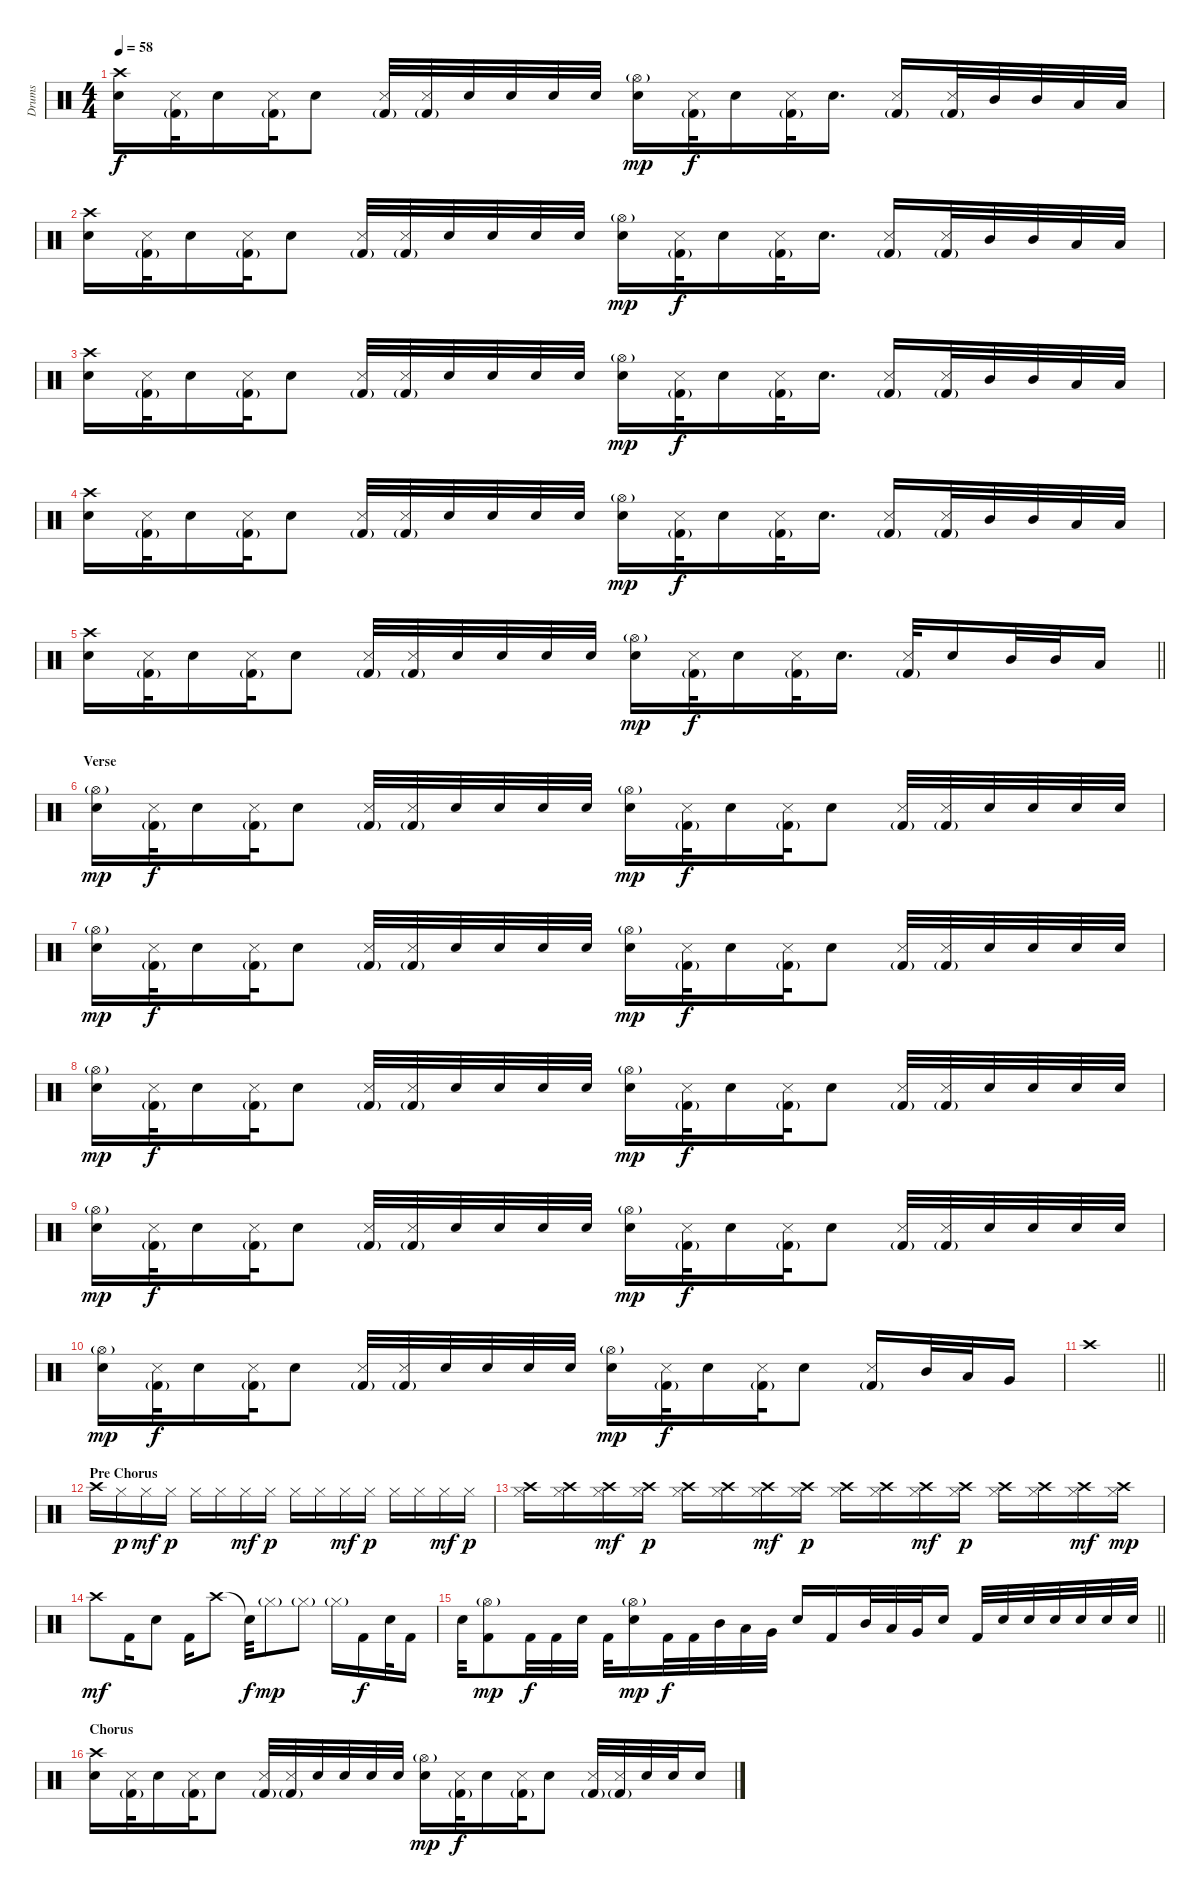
\track ("Drums" "Drums") {instrument percussion}
\staff {score}
\articulation defaults
\ts (4 4)
\tempo 58
\clef neutral
\ks c
("Crash high (hit)" "Electric Snare (hit)").16{dy f} ("Metronome (hit)" "Kick (hit) 2"{g}).32 "Electric Snare (hit)".16 ("Metronome (hit)" "Kick (hit) 2"{g}).32 "Electric Snare (hit)".8 ("Metronome (hit)" "Kick (hit) 2"{g}).32 ("Metronome (hit)" "Kick (hit) 2"{g}).32 "Electric Snare (hit)".32 "Electric Snare (hit)".32 "Electric Snare (hit)".32 "Electric Snare (hit)".32 ("Hi-Hat (open)"{g} "Electric Snare (hit)").16{dy mp} ("Metronome (hit)" "Kick (hit) 2"{g}).32{dy f} "Electric Snare (hit)".16 ("Metronome (hit)" "Kick (hit) 2"{g}).32 "Electric Snare (hit)".16{d} ("Metronome (hit)" "Kick (hit) 2"{g}).16 ("Metronome (hit)" "Kick (hit) 2"{g}).32 "Mid Tom (hit)".32 "Mid Tom (hit)".32 "Low Tom (hit)".32 "Low Tom (hit)".32 |
("Crash high (hit)" "Electric Snare (hit)").16 ("Metronome (hit)" "Kick (hit) 2"{g}).32 "Electric Snare (hit)".16 ("Metronome (hit)" "Kick (hit) 2"{g}).32 "Electric Snare (hit)".8 ("Metronome (hit)" "Kick (hit) 2"{g}).32 ("Metronome (hit)" "Kick (hit) 2"{g}).32 "Electric Snare (hit)".32 "Electric Snare (hit)".32 "Electric Snare (hit)".32 "Electric Snare (hit)".32 ("Hi-Hat (open)"{g} "Electric Snare (hit)").16{dy mp} ("Metronome (hit)" "Kick (hit) 2"{g}).32{dy f} "Electric Snare (hit)".16 ("Metronome (hit)" "Kick (hit) 2"{g}).32 "Electric Snare (hit)".16{d} ("Metronome (hit)" "Kick (hit) 2"{g}).16 ("Metronome (hit)" "Kick (hit) 2"{g}).32 "Mid Tom (hit)".32 "Mid Tom (hit)".32 "Low Tom (hit)".32 "Low Tom (hit)".32 |
("Crash high (hit)" "Electric Snare (hit)").16 ("Metronome (hit)" "Kick (hit) 2"{g}).32 "Electric Snare (hit)".16 ("Metronome (hit)" "Kick (hit) 2"{g}).32 "Electric Snare (hit)".8 ("Metronome (hit)" "Kick (hit) 2"{g}).32 ("Metronome (hit)" "Kick (hit) 2"{g}).32 "Electric Snare (hit)".32 "Electric Snare (hit)".32 "Electric Snare (hit)".32 "Electric Snare (hit)".32 ("Hi-Hat (open)"{g} "Electric Snare (hit)").16{dy mp} ("Metronome (hit)" "Kick (hit) 2"{g}).32{dy f} "Electric Snare (hit)".16 ("Metronome (hit)" "Kick (hit) 2"{g}).32 "Electric Snare (hit)".16{d} ("Metronome (hit)" "Kick (hit) 2"{g}).16 ("Metronome (hit)" "Kick (hit) 2"{g}).32 "Mid Tom (hit)".32 "Mid Tom (hit)".32 "Low Tom (hit)".32 "Low Tom (hit)".32 |
("Crash high (hit)" "Electric Snare (hit)").16 ("Metronome (hit)" "Kick (hit) 2"{g}).32 "Electric Snare (hit)".16 ("Metronome (hit)" "Kick (hit) 2"{g}).32 "Electric Snare (hit)".8 ("Metronome (hit)" "Kick (hit) 2"{g}).32 ("Metronome (hit)" "Kick (hit) 2"{g}).32 "Electric Snare (hit)".32 "Electric Snare (hit)".32 "Electric Snare (hit)".32 "Electric Snare (hit)".32 ("Hi-Hat (open)"{g} "Electric Snare (hit)").16{dy mp} ("Metronome (hit)" "Kick (hit) 2"{g}).32{dy f} "Electric Snare (hit)".16 ("Metronome (hit)" "Kick (hit) 2"{g}).32 "Electric Snare (hit)".16{d} ("Metronome (hit)" "Kick (hit) 2"{g}).16 ("Metronome (hit)" "Kick (hit) 2"{g}).32 "Mid Tom (hit)".32 "Mid Tom (hit)".32 "Low Tom (hit)".32 "Low Tom (hit)".32 |
\barLineRight lightlight
("Crash high (hit)" "Electric Snare (hit)").16 ("Metronome (hit)" "Kick (hit) 2"{g}).32 "Electric Snare (hit)".16 ("Metronome (hit)" "Kick (hit) 2"{g}).32 "Electric Snare (hit)".8 ("Metronome (hit)" "Kick (hit) 2"{g}).32 ("Metronome (hit)" "Kick (hit) 2"{g}).32 "Electric Snare (hit)".32 "Electric Snare (hit)".32 "Electric Snare (hit)".32 "Electric Snare (hit)".32 ("Hi-Hat (open)"{g} "Electric Snare (hit)").16{dy mp} ("Metronome (hit)" "Kick (hit) 2"{g}).32{dy f} "Electric Snare (hit)".16 ("Metronome (hit)" "Kick (hit) 2"{g}).32 "Electric Snare (hit)".16{d} ("Metronome (hit)" "Kick (hit) 2"{g}).32 "Electric Snare (hit)".16 "Mid Tom (hit)".32 "Mid Tom (hit)".32 "Low Tom (hit)".16 |
\section ("" "Verse")
("Hi-Hat (open)"{g} "Electric Snare (hit)").16{dy mp} ("Metronome (hit)" "Kick (hit) 2"{g}).32{dy f} "Electric Snare (hit)".16 ("Metronome (hit)" "Kick (hit) 2"{g}).32 "Electric Snare (hit)".8 ("Metronome (hit)" "Kick (hit) 2"{g}).32 ("Metronome (hit)" "Kick (hit) 2"{g}).32 "Electric Snare (hit)".32 "Electric Snare (hit)".32 "Electric Snare (hit)".32 "Electric Snare (hit)".32 ("Hi-Hat (open)"{g} "Electric Snare (hit)").16{dy mp} ("Metronome (hit)" "Kick (hit) 2"{g}).32{dy f} "Electric Snare (hit)".16 ("Metronome (hit)" "Kick (hit) 2"{g}).32 "Electric Snare (hit)".8 ("Metronome (hit)" "Kick (hit) 2"{g}).32 ("Metronome (hit)" "Kick (hit) 2"{g}).32 "Electric Snare (hit)".32 "Electric Snare (hit)".32 "Electric Snare (hit)".32 "Electric Snare (hit)".32 |
("Hi-Hat (open)"{g} "Electric Snare (hit)").16{dy mp} ("Metronome (hit)" "Kick (hit) 2"{g}).32{dy f} "Electric Snare (hit)".16 ("Metronome (hit)" "Kick (hit) 2"{g}).32 "Electric Snare (hit)".8 ("Metronome (hit)" "Kick (hit) 2"{g}).32 ("Metronome (hit)" "Kick (hit) 2"{g}).32 "Electric Snare (hit)".32 "Electric Snare (hit)".32 "Electric Snare (hit)".32 "Electric Snare (hit)".32 ("Hi-Hat (open)"{g} "Electric Snare (hit)").16{dy mp} ("Metronome (hit)" "Kick (hit) 2"{g}).32{dy f} "Electric Snare (hit)".16 ("Metronome (hit)" "Kick (hit) 2"{g}).32 "Electric Snare (hit)".8 ("Metronome (hit)" "Kick (hit) 2"{g}).32 ("Metronome (hit)" "Kick (hit) 2"{g}).32 "Electric Snare (hit)".32 "Electric Snare (hit)".32 "Electric Snare (hit)".32 "Electric Snare (hit)".32 |
("Hi-Hat (open)"{g} "Electric Snare (hit)").16{dy mp} ("Metronome (hit)" "Kick (hit) 2"{g}).32{dy f} "Electric Snare (hit)".16 ("Metronome (hit)" "Kick (hit) 2"{g}).32 "Electric Snare (hit)".8 ("Metronome (hit)" "Kick (hit) 2"{g}).32 ("Metronome (hit)" "Kick (hit) 2"{g}).32 "Electric Snare (hit)".32 "Electric Snare (hit)".32 "Electric Snare (hit)".32 "Electric Snare (hit)".32 ("Hi-Hat (open)"{g} "Electric Snare (hit)").16{dy mp} ("Metronome (hit)" "Kick (hit) 2"{g}).32{dy f} "Electric Snare (hit)".16 ("Metronome (hit)" "Kick (hit) 2"{g}).32 "Electric Snare (hit)".8 ("Metronome (hit)" "Kick (hit) 2"{g}).32 ("Metronome (hit)" "Kick (hit) 2"{g}).32 "Electric Snare (hit)".32 "Electric Snare (hit)".32 "Electric Snare (hit)".32 "Electric Snare (hit)".32 |
("Hi-Hat (open)"{g} "Electric Snare (hit)").16{dy mp} ("Metronome (hit)" "Kick (hit) 2"{g}).32{dy f} "Electric Snare (hit)".16 ("Metronome (hit)" "Kick (hit) 2"{g}).32 "Electric Snare (hit)".8 ("Metronome (hit)" "Kick (hit) 2"{g}).32 ("Metronome (hit)" "Kick (hit) 2"{g}).32 "Electric Snare (hit)".32 "Electric Snare (hit)".32 "Electric Snare (hit)".32 "Electric Snare (hit)".32 ("Hi-Hat (open)"{g} "Electric Snare (hit)").16{dy mp} ("Metronome (hit)" "Kick (hit) 2"{g}).32{dy f} "Electric Snare (hit)".16 ("Metronome (hit)" "Kick (hit) 2"{g}).32 "Electric Snare (hit)".8 ("Metronome (hit)" "Kick (hit) 2"{g}).32 ("Metronome (hit)" "Kick (hit) 2"{g}).32 "Electric Snare (hit)".32 "Electric Snare (hit)".32 "Electric Snare (hit)".32 "Electric Snare (hit)".32 |
("Hi-Hat (open)"{g} "Electric Snare (hit)").16{dy mp} ("Metronome (hit)" "Kick (hit) 2"{g}).32{dy f} "Electric Snare (hit)".16 ("Metronome (hit)" "Kick (hit) 2"{g}).32 "Electric Snare (hit)".8 ("Metronome (hit)" "Kick (hit) 2"{g}).32 ("Metronome (hit)" "Kick (hit) 2"{g}).32 "Electric Snare (hit)".32 "Electric Snare (hit)".32 "Electric Snare (hit)".32 "Electric Snare (hit)".32 ("Hi-Hat (open)"{g} "Electric Snare (hit)").16{dy mp} ("Metronome (hit)" "Kick (hit) 2"{g}).32{dy f} "Electric Snare (hit)".16 ("Metronome (hit)" "Kick (hit) 2"{g}).32 "Electric Snare (hit)".8 ("Metronome (hit)" "Kick (hit) 2"{g}).16 "Mid Tom (hit)".32 "Low Tom (hit)".32 "Very Low Tom (hit)".16 |
\barLineRight lightlight "Crash high (hit)".1
|
\section ("" "Pre Chorus")
"Crash high (hit)".16 "Hi-Hat (closed)".16{dy p} "Hi-Hat (closed)".16{dy mf} "Hi-Hat (closed)".16{dy p} "Hi-Hat (closed)".16 "Hi-Hat (closed)".16 "Hi-Hat (closed)".16{dy mf} "Hi-Hat (closed)".16{dy p} "Hi-Hat (closed)".16 "Hi-Hat (closed)".16 "Hi-Hat (closed)".16{dy mf} "Hi-Hat (closed)".16{dy p} "Hi-Hat (closed)".16 "Hi-Hat (closed)".16 "Hi-Hat (closed)".16{dy mf} "Hi-Hat (closed)".16{dy p} |
("Crash high (hit)" "Hi-Hat (closed)").16 ("Crash high (hit)" "Hi-Hat (closed)").16 ("Crash high (hit)" "Hi-Hat (closed)").16{dy mf} ("Crash high (hit)" "Hi-Hat (closed)").16{dy p} ("Crash high (hit)" "Hi-Hat (closed)").16 ("Crash high (hit)" "Hi-Hat (closed)").16 ("Crash high (hit)" "Hi-Hat (closed)").16{dy mf} ("Crash high (hit)" "Hi-Hat (closed)").16{dy p} ("Crash high (hit)" "Hi-Hat (closed)").16 ("Crash high (hit)" "Hi-Hat (closed)").16 ("Crash high (hit)" "Hi-Hat (closed)").16{dy mf} ("Crash high (hit)" "Hi-Hat (closed)").16{dy p} ("Crash high (hit)" "Hi-Hat (closed)").16 ("Crash high (hit)" "Hi-Hat (closed)").16 ("Crash high (hit)" "Hi-Hat (closed)").16{dy mf} ("Crash high (hit)" "Hi-Hat (closed)").16{dy mp} |
"Crash high (hit)".8{dy mf} "Kick (hit) 2".16 "Electric Snare (hit)".8 "Kick (hit) 2".16 "Crash high (hit)".8 "Snare (hit)"{t}.32{dy f} "Hi-Hat (closed)"{g}.8{dy mp} "Hi-Hat (closed)"{g}.8 "Hi-Hat (closed)"{g}.16 "Kick (hit) 2".16{dy f} "Electric Snare (hit)".32 "Kick (hit) 2".16 |
\barLineRight lightlight "Electric Snare (hit)".32
("Hi-Hat (open)"{g} "Kick (hit) 2").8{dy mp} "Kick (hit) 2".32{dy f} "Kick (hit) 2".32 "Electric Snare (hit)".32 "Kick (hit) 2".32 ("Hi-Hat (open)"{g} "Electric Snare (hit)").16{dy mp} "Kick (hit) 2".32{dy f} "Kick (hit) 2".32 "Mid Tom (hit)".32 "Low Tom (hit)".32 "Very Low Tom (hit)".32 "Electric Snare (hit)".16 "Kick (hit) 2".16 "Mid Tom (hit)".32 "Low Tom (hit)".32 "Very Low Tom (hit)".32 "Electric Snare (hit)".16 "Kick (hit) 2".32 "Electric Snare (hit)".32 "Electric Snare (hit)".32 "Electric Snare (hit)".32 "Electric Snare (hit)".32 "Electric Snare (hit)".32 "Electric Snare (hit)".32 |
\section ("" "Chorus")
("Crash high (hit)" "Electric Snare (hit)").16 ("Metronome (hit)" "Kick (hit) 2"{g}).32 "Electric Snare (hit)".16 ("Metronome (hit)" "Kick (hit) 2"{g}).32 "Electric Snare (hit)".8 ("Metronome (hit)" "Kick (hit) 2"{g}).32 ("Metronome (hit)" "Kick (hit) 2"{g}).32 "Electric Snare (hit)".32 "Electric Snare (hit)".32 "Electric Snare (hit)".32 "Electric Snare (hit)".32 ("Hi-Hat (open)"{g} "Electric Snare (hit)").16{dy mp} ("Metronome (hit)" "Kick (hit) 2"{g}).32{dy f} "Electric Snare (hit)".16 ("Metronome (hit)" "Kick (hit) 2"{g}).32 "Electric Snare (hit)".8 ("Metronome (hit)" "Kick (hit) 2"{g}).32 ("Metronome (hit)" "Kick (hit) 2"{g}).32 "Electric Snare (hit)".32 "Electric Snare (hit)".32 "Electric Snare (hit)".16
